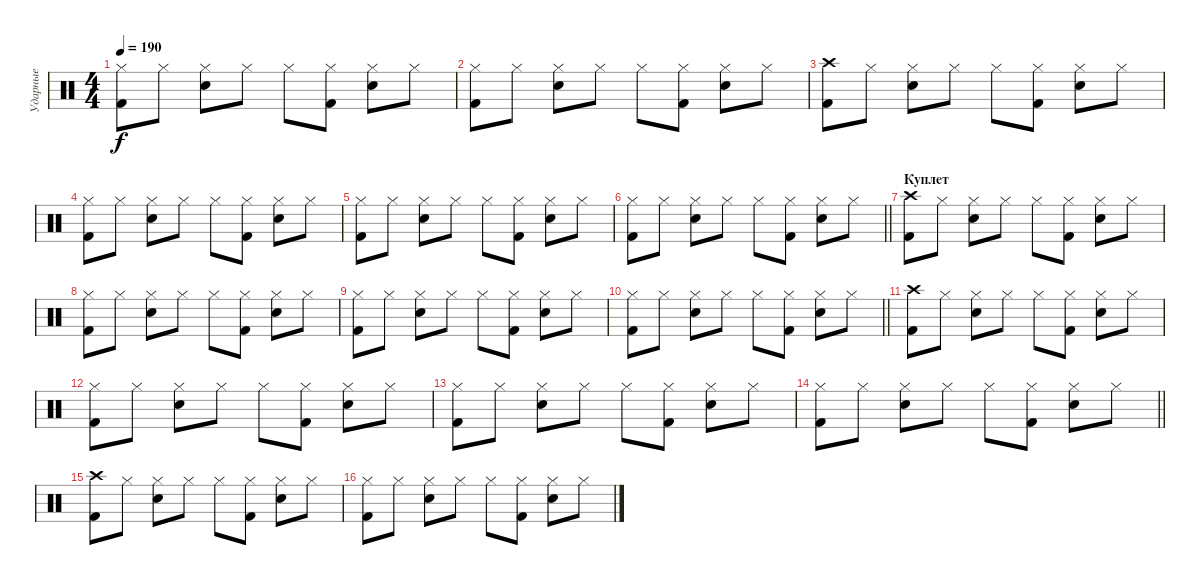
\track ("Ударные" "Ударные") {instrument percussion}
\staff {score}
\articulation defaults
\ts (4 4)
\tempo 190
\clef neutral
\ks c
("Hi-Hat (closed)" "Kick (hit) 2").8{dy f} "Hi-Hat (closed)".8 ("Hi-Hat (closed)" "Snare (hit) 2").8 "Hi-Hat (closed)".8 "Hi-Hat (closed)".8 ("Hi-Hat (closed)" "Kick (hit) 2").8 ("Hi-Hat (closed)" "Snare (hit) 2").8 "Hi-Hat (closed)".8 |
("Hi-Hat (closed)" "Kick (hit) 2").8 "Hi-Hat (closed)".8 ("Hi-Hat (closed)" "Snare (hit) 2").8 "Hi-Hat (closed)".8 "Hi-Hat (closed)".8 ("Hi-Hat (closed)" "Kick (hit) 2").8 ("Hi-Hat (closed)" "Snare (hit) 2").8 "Hi-Hat (closed)".8 |
("Crash high (hit)" "Kick (hit) 2").8 "Hi-Hat (closed)".8 ("Hi-Hat (closed)" "Snare (hit) 2").8 "Hi-Hat (closed)".8 "Hi-Hat (closed)".8 ("Hi-Hat (closed)" "Kick (hit) 2").8 ("Hi-Hat (closed)" "Snare (hit) 2").8 "Hi-Hat (closed)".8 |
("Hi-Hat (closed)" "Kick (hit) 2").8 "Hi-Hat (closed)".8 ("Hi-Hat (closed)" "Snare (hit) 2").8 "Hi-Hat (closed)".8 "Hi-Hat (closed)".8 ("Hi-Hat (closed)" "Kick (hit) 2").8 ("Hi-Hat (closed)" "Snare (hit) 2").8 "Hi-Hat (closed)".8 |
("Hi-Hat (closed)" "Kick (hit) 2").8 "Hi-Hat (closed)".8 ("Hi-Hat (closed)" "Snare (hit) 2").8 "Hi-Hat (closed)".8 "Hi-Hat (closed)".8 ("Hi-Hat (closed)" "Kick (hit) 2").8 ("Hi-Hat (closed)" "Snare (hit) 2").8 "Hi-Hat (closed)".8 |
\barLineRight lightlight
("Hi-Hat (closed)" "Kick (hit) 2").8 "Hi-Hat (closed)".8 ("Hi-Hat (closed)" "Snare (hit) 2").8 "Hi-Hat (closed)".8 "Hi-Hat (closed)".8 ("Hi-Hat (closed)" "Kick (hit) 2").8 ("Hi-Hat (closed)" "Snare (hit) 2").8 "Hi-Hat (closed)".8 |
\section ("" "Куплет")
("Crash high (hit)" "Kick (hit) 2").8 "Hi-Hat (closed)".8 ("Hi-Hat (closed)" "Snare (hit) 2").8 "Hi-Hat (closed)".8 "Hi-Hat (closed)".8 ("Hi-Hat (closed)" "Kick (hit) 2").8 ("Hi-Hat (closed)" "Snare (hit) 2").8 "Hi-Hat (closed)".8 |
("Hi-Hat (closed)" "Kick (hit) 2").8 "Hi-Hat (closed)".8 ("Hi-Hat (closed)" "Snare (hit) 2").8 "Hi-Hat (closed)".8 "Hi-Hat (closed)".8 ("Hi-Hat (closed)" "Kick (hit) 2").8 ("Hi-Hat (closed)" "Snare (hit) 2").8 "Hi-Hat (closed)".8 |
("Hi-Hat (closed)" "Kick (hit) 2").8 "Hi-Hat (closed)".8 ("Hi-Hat (closed)" "Snare (hit) 2").8 "Hi-Hat (closed)".8 "Hi-Hat (closed)".8 ("Hi-Hat (closed)" "Kick (hit) 2").8 ("Hi-Hat (closed)" "Snare (hit) 2").8 "Hi-Hat (closed)".8 |
\barLineRight lightlight
("Hi-Hat (closed)" "Kick (hit) 2").8 "Hi-Hat (closed)".8 ("Hi-Hat (closed)" "Snare (hit) 2").8 "Hi-Hat (closed)".8 "Hi-Hat (closed)".8 ("Hi-Hat (closed)" "Kick (hit) 2").8 ("Hi-Hat (closed)" "Snare (hit) 2").8 "Hi-Hat (closed)".8 |
("Crash high (hit)" "Kick (hit) 2").8 "Hi-Hat (closed)".8 ("Hi-Hat (closed)" "Snare (hit) 2").8 "Hi-Hat (closed)".8 "Hi-Hat (closed)".8 ("Hi-Hat (closed)" "Kick (hit) 2").8 ("Hi-Hat (closed)" "Snare (hit) 2").8 "Hi-Hat (closed)".8 |
("Hi-Hat (closed)" "Kick (hit) 2").8 "Hi-Hat (closed)".8 ("Hi-Hat (closed)" "Snare (hit) 2").8 "Hi-Hat (closed)".8 "Hi-Hat (closed)".8 ("Hi-Hat (closed)" "Kick (hit) 2").8 ("Hi-Hat (closed)" "Snare (hit) 2").8 "Hi-Hat (closed)".8 |
("Hi-Hat (closed)" "Kick (hit) 2").8 "Hi-Hat (closed)".8 ("Hi-Hat (closed)" "Snare (hit) 2").8 "Hi-Hat (closed)".8 "Hi-Hat (closed)".8 ("Hi-Hat (closed)" "Kick (hit) 2").8 ("Hi-Hat (closed)" "Snare (hit) 2").8 "Hi-Hat (closed)".8 |
\barLineRight lightlight
("Hi-Hat (closed)" "Kick (hit) 2").8 "Hi-Hat (closed)".8 ("Hi-Hat (closed)" "Snare (hit) 2").8 "Hi-Hat (closed)".8 "Hi-Hat (closed)".8 ("Hi-Hat (closed)" "Kick (hit) 2").8 ("Hi-Hat (closed)" "Snare (hit) 2").8 "Hi-Hat (closed)".8 |
("Crash high (hit)" "Kick (hit) 2").8 "Hi-Hat (closed)".8 ("Hi-Hat (closed)" "Snare (hit) 2").8 "Hi-Hat (closed)".8 "Hi-Hat (closed)".8 ("Hi-Hat (closed)" "Kick (hit) 2").8 ("Hi-Hat (closed)" "Snare (hit) 2").8 "Hi-Hat (closed)".8 |
("Hi-Hat (closed)" "Kick (hit) 2").8 "Hi-Hat (closed)".8 ("Hi-Hat (closed)" "Snare (hit) 2").8 "Hi-Hat (closed)".8 "Hi-Hat (closed)".8 ("Hi-Hat (closed)" "Kick (hit) 2").8 ("Hi-Hat (closed)" "Snare (hit) 2").8 "Hi-Hat (closed)".8
